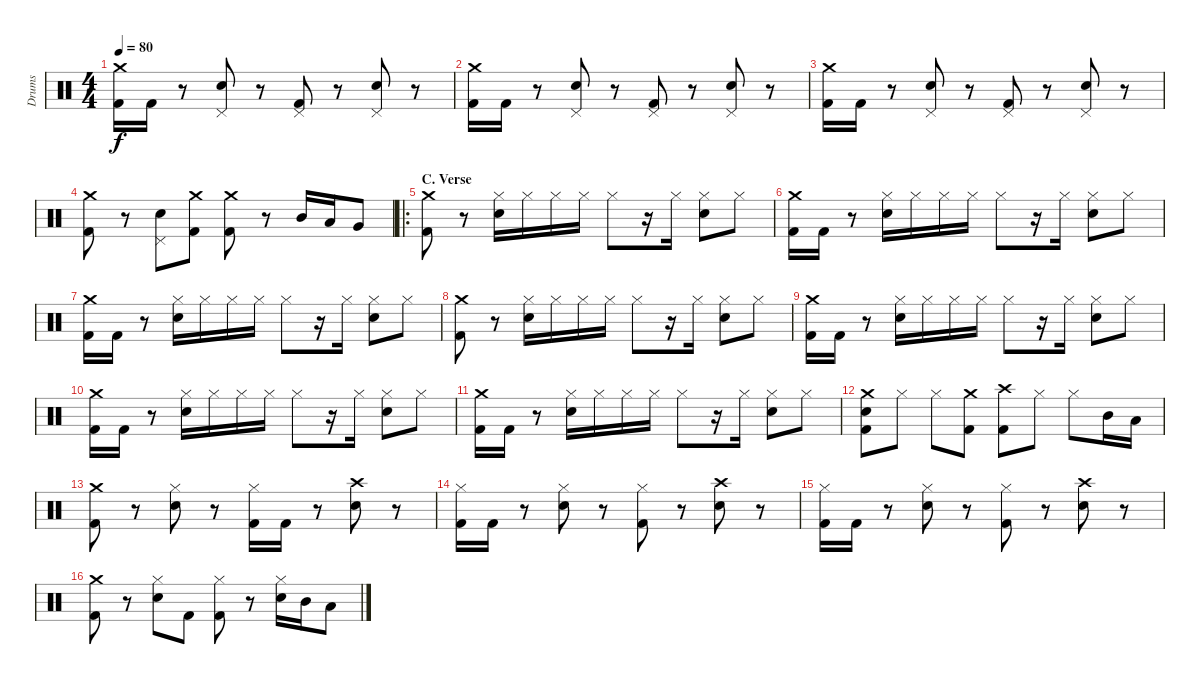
\track ("Drums" "Drums") {instrument percussion}
\staff {score}
\articulation defaults
\ts (4 4)
\tempo 80
\clef neutral
\ks c
("Kick (hit) 2" "Crash medium (hit)").16{dy f} "Kick (hit) 2".16 r.8 ("Snare (hit) 2" "Pedal Hi-Hat (hit)").8 r.8 ("Kick (hit) 2" "Pedal Hi-Hat (hit)").8 r.8 ("Snare (hit) 2" "Pedal Hi-Hat (hit)").8 r.8 |
("Kick (hit) 2" "Crash medium (hit)").16 "Kick (hit) 2".16 r.8 ("Snare (hit) 2" "Pedal Hi-Hat (hit)").8 r.8 ("Kick (hit) 2" "Pedal Hi-Hat (hit)").8 r.8 ("Snare (hit) 2" "Pedal Hi-Hat (hit)").8 r.8 |
("Kick (hit) 2" "Crash medium (hit)").16 "Kick (hit) 2".16 r.8 ("Snare (hit) 2" "Pedal Hi-Hat (hit)").8 r.8 ("Kick (hit) 2" "Pedal Hi-Hat (hit)").8 r.8 ("Snare (hit) 2" "Pedal Hi-Hat (hit)").8 r.8 |
("Kick (hit) 2" "Crash medium (hit)").8 r.8 ("Snare (hit) 2" "Pedal Hi-Hat (hit)").8 ("Kick (hit) 2" "Crash medium (hit)").8 ("Kick (hit) 2" "Crash medium (hit)").8 r.8 "Mid Tom (hit)".16 "Low Tom (hit)".16 "Very Low Tom (hit)".8 |
\ro
\section ("" "C. Verse")
("Kick (hit) 2" "Crash medium (hit)").8 r.8 ("Snare (hit) 2" "Hi-Hat (closed)").16 "Hi-Hat (closed)".16 "Hi-Hat (closed)".16 "Hi-Hat (closed)".16 "Hi-Hat (closed)".8 r.16 "Hi-Hat (closed)".16 ("Snare (hit) 2" "Hi-Hat (closed)").8 "Hi-Hat (closed)".8 |
("Kick (hit) 2" "Crash medium (hit)").16 "Kick (hit) 2".16 r.8 ("Snare (hit) 2" "Hi-Hat (closed)").16 "Hi-Hat (closed)".16 "Hi-Hat (closed)".16 "Hi-Hat (closed)".16 "Hi-Hat (closed)".8 r.16 "Hi-Hat (closed)".16 ("Snare (hit) 2" "Hi-Hat (closed)").8 "Hi-Hat (closed)".8 |
("Kick (hit) 2" "Crash medium (hit)").16 "Kick (hit) 2".16 r.8 ("Snare (hit) 2" "Hi-Hat (closed)").16 "Hi-Hat (closed)".16 "Hi-Hat (closed)".16 "Hi-Hat (closed)".16 "Hi-Hat (closed)".8 r.16 "Hi-Hat (closed)".16 ("Snare (hit) 2" "Hi-Hat (closed)").8 "Hi-Hat (closed)".8 |
("Kick (hit) 2" "Crash medium (hit)").8 r.8 ("Snare (hit) 2" "Hi-Hat (closed)").16 "Hi-Hat (closed)".16 "Hi-Hat (closed)".16 "Hi-Hat (closed)".16 "Hi-Hat (closed)".8 r.16 "Hi-Hat (closed)".16 ("Snare (hit) 2" "Hi-Hat (closed)").8 "Hi-Hat (closed)".8 |
("Kick (hit) 2" "Crash medium (hit)").16 "Kick (hit) 2".16 r.8 ("Snare (hit) 2" "Hi-Hat (closed)").16 "Hi-Hat (closed)".16 "Hi-Hat (closed)".16 "Hi-Hat (closed)".16 "Hi-Hat (closed)".8 r.16 "Hi-Hat (closed)".16 ("Snare (hit) 2" "Hi-Hat (closed)").8 "Hi-Hat (closed)".8 |
("Kick (hit) 2" "Crash medium (hit)").16 "Kick (hit) 2".16 r.8 ("Snare (hit) 2" "Hi-Hat (closed)").16 "Hi-Hat (closed)".16 "Hi-Hat (closed)".16 "Hi-Hat (closed)".16 "Hi-Hat (closed)".8 r.16 "Hi-Hat (closed)".16 ("Snare (hit) 2" "Hi-Hat (closed)").8 "Hi-Hat (closed)".8 |
("Kick (hit) 2" "Crash medium (hit)").16 "Kick (hit) 2".16 r.8 ("Snare (hit) 2" "Hi-Hat (closed)").16 "Hi-Hat (closed)".16 "Hi-Hat (closed)".16 "Hi-Hat (closed)".16 "Hi-Hat (closed)".8 r.16 "Hi-Hat (closed)".16 ("Snare (hit) 2" "Hi-Hat (closed)").8 "Hi-Hat (closed)".8 |
("Kick (hit) 2" "Snare (hit) 2" "Crash medium (hit)").8 "Hi-Hat (closed)".8 "Hi-Hat (closed)".8 ("Kick (hit) 2" "Crash medium (hit)").8 ("Kick (hit) 2" "Crash high (hit)").8 "Hi-Hat (closed)".8 "Hi-Hat (closed)".8 "Mid Tom (hit)".16 "Low Tom (hit)".16 |
("Kick (hit) 2" "Crash medium (hit)").8 r.8 ("Snare (hit) 2" "Hi-Hat (closed)").8 r.8 ("Kick (hit) 2" "Hi-Hat (closed)").16 "Kick (hit) 2".16 r.8 ("Snare (hit) 2" "Crash high (hit)").8 r.8 |
("Kick (hit) 2" "Hi-Hat (closed)").16 "Kick (hit) 2".16 r.8 ("Snare (hit) 2" "Hi-Hat (closed)").8 r.8 ("Kick (hit) 2" "Hi-Hat (closed)").8 r.8 ("Snare (hit) 2" "Crash high (hit)").8 r.8 |
("Kick (hit) 2" "Hi-Hat (closed)").16 "Kick (hit) 2".16 r.8 ("Snare (hit) 2" "Hi-Hat (closed)").8 r.8 ("Kick (hit) 2" "Hi-Hat (closed)").8 r.8 ("Snare (hit) 2" "Crash high (hit)").8 r.8 |
("Kick (hit) 2" "Crash medium (hit)").8 r.8 ("Snare (hit) 2" "Hi-Hat (closed)").8 "Kick (hit) 2".8 ("Kick (hit) 2" "Hi-Hat (closed)").8 r.8 ("Snare (hit) 2" "Hi-Hat (closed)").16 "Mid Tom (hit)".16 "Low Tom (hit)".8
